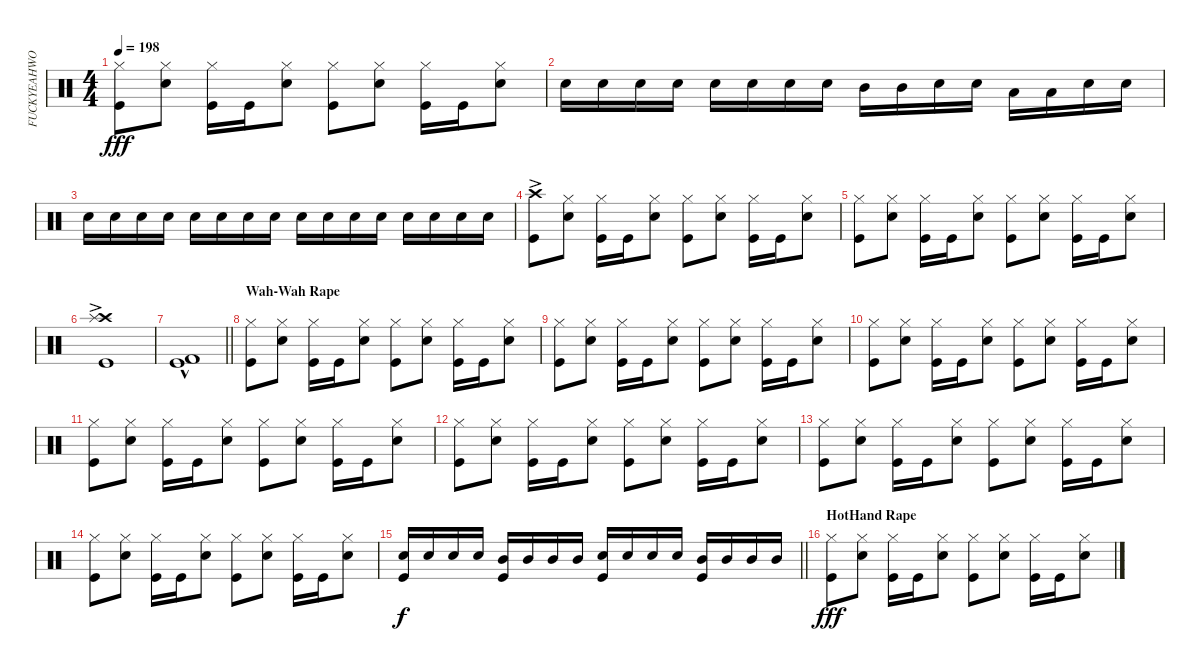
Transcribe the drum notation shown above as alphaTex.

\track ("FUCKYEAHWOOTDAVEMACKINTOSH!(Percussion)" "FUCKYEAHWO") {instrument percussion}
\staff {score}
\articulation defaults
\ts (4 4)
\tempo 198
\clef neutral
\ks c
("Kick (hit)" "Hi-Hat (closed)").8{dy fff} ("Snare (hit) 2" "Hi-Hat (closed)").8 ("Kick (hit)" "Hi-Hat (closed)").16 "Kick (hit)".16 ("Hi-Hat (closed)" "Snare (hit) 2").8 ("Kick (hit)" "Hi-Hat (closed)").8 ("Snare (hit) 2" "Hi-Hat (closed)").8 ("Kick (hit)" "Hi-Hat (closed)").16 "Kick (hit)".16 ("Snare (hit) 2" "Hi-Hat (closed)").8 |
"Snare (hit) 2".16 "Snare (hit) 2".16 "Snare (hit) 2".16 "Snare (hit) 2".16 "Snare (hit) 2".16 "Snare (hit) 2".16 "Snare (hit) 2".16 "Snare (hit) 2".16 "Mid Tom (hit)".16 "Mid Tom (hit)".16 "Snare (hit) 2".16 "Snare (hit) 2".16 "Low Tom (hit)".16 "Low Tom (hit)".16 "Snare (hit) 2".16 "Snare (hit) 2".16 |
"Snare (hit) 2".16 "Snare (hit) 2".16 "Snare (hit) 2".16 "Snare (hit) 2".16 "Snare (hit) 2".16 "Snare (hit) 2".16 "Snare (hit) 2".16 "Snare (hit) 2".16 "Snare (hit) 2".16 "Snare (hit) 2".16 "Snare (hit) 2".16 "Snare (hit) 2".16 "Snare (hit) 2".16 "Snare (hit) 2".16 "Snare (hit) 2".16 "Snare (hit) 2".16 |
("Kick (hit)" "Crash high (hit)"{ac}).8 ("Snare (hit) 2" "Hi-Hat (closed)").8 ("Kick (hit)" "Hi-Hat (closed)").16 "Kick (hit)".16 ("Hi-Hat (closed)" "Snare (hit) 2").8 ("Kick (hit)" "Hi-Hat (closed)").8 ("Snare (hit) 2" "Hi-Hat (closed)").8 ("Kick (hit)" "Hi-Hat (closed)").16 "Kick (hit)".16 ("Snare (hit) 2" "Hi-Hat (closed)").8 |
("Kick (hit)" "Hi-Hat (closed)").8 ("Snare (hit) 2" "Hi-Hat (closed)").8 ("Kick (hit)" "Hi-Hat (closed)").16 "Kick (hit)".16 ("Hi-Hat (closed)" "Snare (hit) 2").8 ("Kick (hit)" "Hi-Hat (closed)").8 ("Snare (hit) 2" "Hi-Hat (closed)").8 ("Kick (hit)" "Hi-Hat (closed)").16 "Kick (hit)".16 ("Snare (hit) 2" "Hi-Hat (closed)").8 |
("Crash high (hit)"{ac} "Kick (hit)"{ac} "Splash (hit)"{ac}).1 |
\barLineRight lightlight
("Kick (hit)"{hac} "Kick (hit) 2").1 |
\section ("" "Wah-Wah Rape")
("Kick (hit)" "Hi-Hat (closed)").8 ("Snare (hit) 2" "Hi-Hat (closed)").8 ("Kick (hit)" "Hi-Hat (closed)").16 "Kick (hit)".16 ("Hi-Hat (closed)" "Snare (hit) 2").8 ("Kick (hit)" "Hi-Hat (closed)").8 ("Snare (hit) 2" "Hi-Hat (closed)").8 ("Kick (hit)" "Hi-Hat (closed)").16 "Kick (hit)".16 ("Snare (hit) 2" "Hi-Hat (closed)").8 |
("Kick (hit)" "Hi-Hat (closed)").8 ("Snare (hit) 2" "Hi-Hat (closed)").8 ("Kick (hit)" "Hi-Hat (closed)").16 "Kick (hit)".16 ("Hi-Hat (closed)" "Snare (hit) 2").8 ("Kick (hit)" "Hi-Hat (closed)").8 ("Snare (hit) 2" "Hi-Hat (closed)").8 ("Kick (hit)" "Hi-Hat (closed)").16 "Kick (hit)".16 ("Snare (hit) 2" "Hi-Hat (closed)").8 |
("Kick (hit)" "Hi-Hat (closed)").8 ("Snare (hit) 2" "Hi-Hat (closed)").8 ("Kick (hit)" "Hi-Hat (closed)").16 "Kick (hit)".16 ("Hi-Hat (closed)" "Snare (hit) 2").8 ("Kick (hit)" "Hi-Hat (closed)").8 ("Snare (hit) 2" "Hi-Hat (closed)").8 ("Kick (hit)" "Hi-Hat (closed)").16 "Kick (hit)".16 ("Snare (hit) 2" "Hi-Hat (closed)").8 |
("Kick (hit)" "Hi-Hat (closed)").8 ("Snare (hit) 2" "Hi-Hat (closed)").8 ("Kick (hit)" "Hi-Hat (closed)").16 "Kick (hit)".16 ("Hi-Hat (closed)" "Snare (hit) 2").8 ("Kick (hit)" "Hi-Hat (closed)").8 ("Snare (hit) 2" "Hi-Hat (closed)").8 ("Kick (hit)" "Hi-Hat (closed)").16 "Kick (hit)".16 ("Snare (hit) 2" "Hi-Hat (closed)").8 |
("Kick (hit)" "Hi-Hat (closed)").8 ("Snare (hit) 2" "Hi-Hat (closed)").8 ("Kick (hit)" "Hi-Hat (closed)").16 "Kick (hit)".16 ("Hi-Hat (closed)" "Snare (hit) 2").8 ("Kick (hit)" "Hi-Hat (closed)").8 ("Snare (hit) 2" "Hi-Hat (closed)").8 ("Kick (hit)" "Hi-Hat (closed)").16 "Kick (hit)".16 ("Snare (hit) 2" "Hi-Hat (closed)").8 |
("Kick (hit)" "Hi-Hat (closed)").8 ("Snare (hit) 2" "Hi-Hat (closed)").8 ("Kick (hit)" "Hi-Hat (closed)").16 "Kick (hit)".16 ("Hi-Hat (closed)" "Snare (hit) 2").8 ("Kick (hit)" "Hi-Hat (closed)").8 ("Snare (hit) 2" "Hi-Hat (closed)").8 ("Kick (hit)" "Hi-Hat (closed)").16 "Kick (hit)".16 ("Snare (hit) 2" "Hi-Hat (closed)").8 |
("Kick (hit)" "Hi-Hat (closed)").8 ("Snare (hit) 2" "Hi-Hat (closed)").8 ("Kick (hit)" "Hi-Hat (closed)").16 "Kick (hit)".16 ("Hi-Hat (closed)" "Snare (hit) 2").8 ("Kick (hit)" "Hi-Hat (closed)").8 ("Snare (hit) 2" "Hi-Hat (closed)").8 ("Kick (hit)" "Hi-Hat (closed)").16 "Kick (hit)".16 ("Snare (hit) 2" "Hi-Hat (closed)").8 |
\barLineRight lightlight
("Snare (hit) 2" "Kick (hit)").16{dy f} "Snare (hit) 2".16 "Snare (hit) 2".16 "Snare (hit) 2".16 ("Mid Tom (hit)" "Kick (hit)").16 "Mid Tom (hit)".16 "Mid Tom (hit)".16 "Mid Tom (hit)".16 ("Snare (hit) 2" "Kick (hit)").16 "Snare (hit) 2".16 "Snare (hit) 2".16 "Snare (hit) 2".16 ("Mid Tom (hit)" "Kick (hit)").16 "Mid Tom (hit)".16 "Mid Tom (hit)".16 "Mid Tom (hit)".16 |
\section ("" "HotHand Rape")
("Kick (hit)" "Hi-Hat (closed)").8{dy fff} ("Snare (hit) 2" "Hi-Hat (closed)").8 ("Kick (hit)" "Hi-Hat (closed)").16 "Kick (hit)".16 ("Hi-Hat (closed)" "Snare (hit) 2").8 ("Kick (hit)" "Hi-Hat (closed)").8 ("Snare (hit) 2" "Hi-Hat (closed)").8 ("Kick (hit)" "Hi-Hat (closed)").16 "Kick (hit)".16 ("Snare (hit) 2" "Hi-Hat (closed)").8
